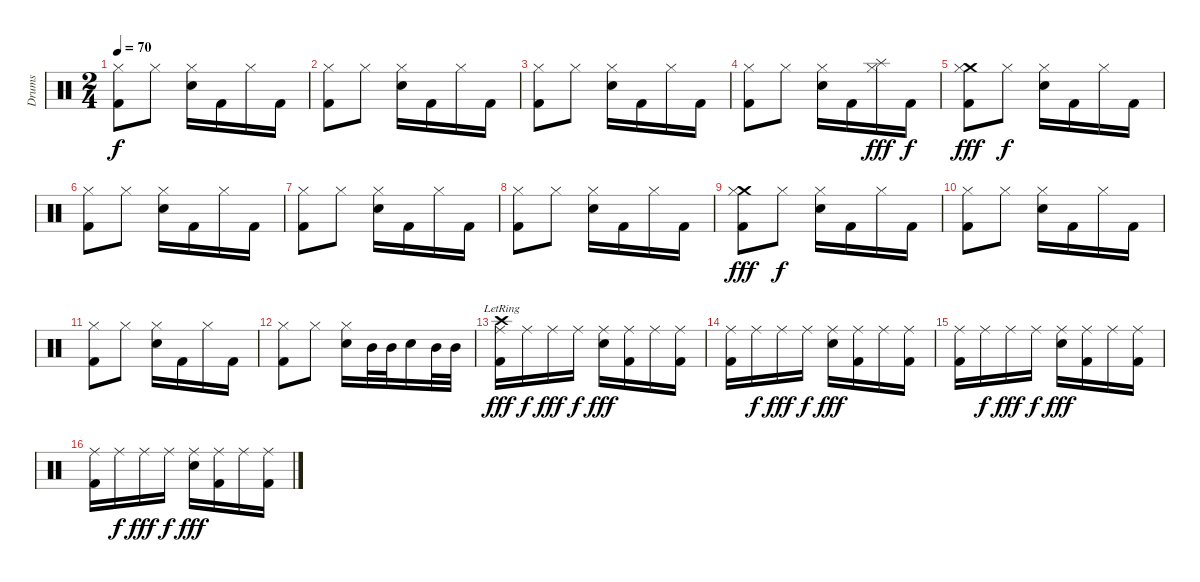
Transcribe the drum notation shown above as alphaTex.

\track ("Drums" "Drums") {instrument percussion}
\staff {score}
\articulation defaults
\ts (2 4)
\tempo 70
\clef neutral
\ks c
("Hi-Hat (closed)" "Kick (hit) 2").8{dy f} "Hi-Hat (closed)".8 ("Hi-Hat (closed)" "Electric Snare (hit)").16 "Kick (hit) 2".16 "Hi-Hat (closed)".16 "Kick (hit) 2".16 |
("Hi-Hat (closed)" "Kick (hit) 2").8 "Hi-Hat (closed)".8 ("Hi-Hat (closed)" "Electric Snare (hit)").16 "Kick (hit) 2".16 "Hi-Hat (closed)".16 "Kick (hit) 2".16 |
("Hi-Hat (closed)" "Kick (hit) 2").8 "Hi-Hat (closed)".8 ("Hi-Hat (closed)" "Electric Snare (hit)").16 "Kick (hit) 2".16 "Hi-Hat (closed)".16 "Kick (hit) 2".16 |
("Hi-Hat (closed)" "Kick (hit) 2").8 "Hi-Hat (closed)".8 ("Hi-Hat (closed)" "Electric Snare (hit)").16 "Kick (hit) 2".16 ("Splash (hit)" "Hi-Hat (closed)").16{dy fff} "Kick (hit) 2".16{dy f} |
("Crash medium (hit)" "Hi-Hat (closed)" "Kick (hit) 2").8{dy fff} "Hi-Hat (closed)".8{dy f} ("Hi-Hat (closed)" "Electric Snare (hit)").16 "Kick (hit) 2".16 "Hi-Hat (closed)".16 "Kick (hit) 2".16 |
("Hi-Hat (closed)" "Kick (hit) 2").8 "Hi-Hat (closed)".8 ("Hi-Hat (closed)" "Electric Snare (hit)").16 "Kick (hit) 2".16 "Hi-Hat (closed)".16 "Kick (hit) 2".16 |
("Hi-Hat (closed)" "Kick (hit) 2").8 "Hi-Hat (closed)".8 ("Hi-Hat (closed)" "Electric Snare (hit)").16 "Kick (hit) 2".16 "Hi-Hat (closed)".16 "Kick (hit) 2".16 |
("Hi-Hat (closed)" "Kick (hit) 2").8 "Hi-Hat (closed)".8 ("Hi-Hat (closed)" "Electric Snare (hit)").16 "Kick (hit) 2".16 "Hi-Hat (closed)".16 "Kick (hit) 2".16 |
("Crash medium (hit)" "Hi-Hat (closed)" "Kick (hit) 2").8{dy fff} "Hi-Hat (closed)".8{dy f} ("Hi-Hat (closed)" "Electric Snare (hit)").16 "Kick (hit) 2".16 "Hi-Hat (closed)".16 "Kick (hit) 2".16 |
("Hi-Hat (closed)" "Kick (hit) 2").8 "Hi-Hat (closed)".8 ("Hi-Hat (closed)" "Electric Snare (hit)").16 "Kick (hit) 2".16 "Hi-Hat (closed)".16 "Kick (hit) 2".16 |
("Hi-Hat (closed)" "Kick (hit) 2").8 "Hi-Hat (closed)".8 ("Hi-Hat (closed)" "Electric Snare (hit)").16 "Kick (hit) 2".16 "Hi-Hat (closed)".16 "Kick (hit) 2".16 |
("Hi-Hat (closed)" "Kick (hit) 2").8 "Hi-Hat (closed)".8 ("Hi-Hat (closed)" "Electric Snare (hit)").16 "Mid Tom (hit)".32 "Mid Tom (hit)".32 "Electric Snare (hit)".16 "Mid Tom (hit)".32 "Mid Tom (hit)".32 |
("Crash high (hit)"{lr} "Ride (middle)" "Kick (hit) 2").16{dy fff} "Ride (middle)".16{dy f} "Ride (middle)".16{dy fff} "Ride (middle)".16{dy f} ("Ride (middle)" "Electric Snare (hit)").16{dy fff} ("Ride (middle)" "Kick (hit) 2").16 "Ride (middle)".16 ("Ride (middle)" "Kick (hit) 2").16 |
("Ride (middle)" "Kick (hit) 2").16 "Ride (middle)".16{dy f} "Ride (middle)".16{dy fff} "Ride (middle)".16{dy f} ("Ride (middle)" "Electric Snare (hit)").16{dy fff} ("Ride (middle)" "Kick (hit) 2").16 "Ride (middle)".16 ("Ride (middle)" "Kick (hit) 2").16 |
("Ride (middle)" "Kick (hit) 2").16 "Ride (middle)".16{dy f} "Ride (middle)".16{dy fff} "Ride (middle)".16{dy f} ("Ride (middle)" "Electric Snare (hit)").16{dy fff} ("Ride (middle)" "Kick (hit) 2").16 "Ride (middle)".16 ("Ride (middle)" "Kick (hit) 2").16 |
("Ride (middle)" "Kick (hit) 2").16 "Ride (middle)".16{dy f} "Ride (middle)".16{dy fff} "Ride (middle)".16{dy f} ("Ride (middle)" "Electric Snare (hit)").16{dy fff} ("Ride (middle)" "Kick (hit) 2").16 "Ride (middle)".16 ("Ride (middle)" "Kick (hit) 2").16
